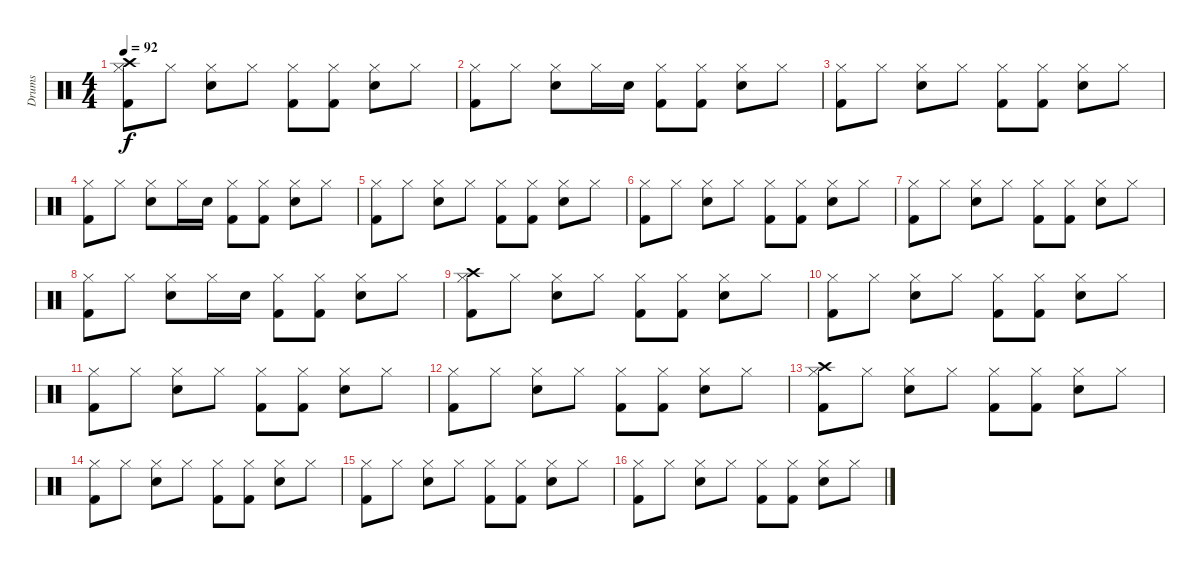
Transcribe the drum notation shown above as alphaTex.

\track ("Drums" "Drums") {instrument percussion}
\staff {score}
\articulation defaults
\ts (4 4)
\tempo 92
\clef neutral
\ks c
("Kick (hit) 2" "Hi-Hat (closed)" "Crash high (hit)").8{dy f} "Hi-Hat (closed)".8 ("Electric Snare (hit)" "Hi-Hat (closed)").8 "Hi-Hat (closed)".8 ("Kick (hit) 2" "Hi-Hat (closed)").8 ("Kick (hit) 2" "Hi-Hat (closed)").8 ("Electric Snare (hit)" "Hi-Hat (closed)").8 "Hi-Hat (closed)".8 |
("Kick (hit) 2" "Hi-Hat (closed)").8 "Hi-Hat (closed)".8 ("Electric Snare (hit)" "Hi-Hat (closed)").8 "Hi-Hat (closed)".16 "Electric Snare (hit)".16 ("Kick (hit) 2" "Hi-Hat (closed)").8 ("Kick (hit) 2" "Hi-Hat (closed)").8 ("Electric Snare (hit)" "Hi-Hat (closed)").8 "Hi-Hat (closed)".8 |
("Kick (hit) 2" "Hi-Hat (closed)").8 "Hi-Hat (closed)".8 ("Electric Snare (hit)" "Hi-Hat (closed)").8 "Hi-Hat (closed)".8 ("Kick (hit) 2" "Hi-Hat (closed)").8 ("Kick (hit) 2" "Hi-Hat (closed)").8 ("Electric Snare (hit)" "Hi-Hat (closed)").8 "Hi-Hat (closed)".8 |
("Kick (hit) 2" "Hi-Hat (closed)").8 "Hi-Hat (closed)".8 ("Electric Snare (hit)" "Hi-Hat (closed)").8 "Hi-Hat (closed)".16 "Electric Snare (hit)".16 ("Kick (hit) 2" "Hi-Hat (closed)").8 ("Kick (hit) 2" "Hi-Hat (closed)").8 ("Electric Snare (hit)" "Hi-Hat (closed)").8 "Hi-Hat (closed)".8 |
("Kick (hit) 2" "Hi-Hat (closed)").8 "Hi-Hat (closed)".8 ("Electric Snare (hit)" "Hi-Hat (closed)").8 "Hi-Hat (closed)".8 ("Kick (hit) 2" "Hi-Hat (closed)").8 ("Kick (hit) 2" "Hi-Hat (closed)").8 ("Electric Snare (hit)" "Hi-Hat (closed)").8 "Hi-Hat (closed)".8 |
("Kick (hit) 2" "Hi-Hat (closed)").8 "Hi-Hat (closed)".8 ("Electric Snare (hit)" "Hi-Hat (closed)").8 "Hi-Hat (closed)".8 ("Kick (hit) 2" "Hi-Hat (closed)").8 ("Kick (hit) 2" "Hi-Hat (closed)").8 ("Electric Snare (hit)" "Hi-Hat (closed)").8 "Hi-Hat (closed)".8 |
("Kick (hit) 2" "Hi-Hat (closed)").8 "Hi-Hat (closed)".8 ("Electric Snare (hit)" "Hi-Hat (closed)").8 "Hi-Hat (closed)".8 ("Kick (hit) 2" "Hi-Hat (closed)").8 ("Kick (hit) 2" "Hi-Hat (closed)").8 ("Electric Snare (hit)" "Hi-Hat (closed)").8 "Hi-Hat (closed)".8 |
("Kick (hit) 2" "Hi-Hat (closed)").8 "Hi-Hat (closed)".8 ("Electric Snare (hit)" "Hi-Hat (closed)").8 "Hi-Hat (closed)".16 "Electric Snare (hit)".16 ("Kick (hit) 2" "Hi-Hat (closed)").8 ("Kick (hit) 2" "Hi-Hat (closed)").8 ("Electric Snare (hit)" "Hi-Hat (closed)").8 "Hi-Hat (closed)".8 |
("Kick (hit) 2" "Hi-Hat (closed)" "Crash high (hit)").8 "Hi-Hat (closed)".8 ("Electric Snare (hit)" "Hi-Hat (closed)").8 "Hi-Hat (closed)".8 ("Kick (hit) 2" "Hi-Hat (closed)").8 ("Kick (hit) 2" "Hi-Hat (closed)").8 ("Electric Snare (hit)" "Hi-Hat (closed)").8 "Hi-Hat (closed)".8 |
("Kick (hit) 2" "Hi-Hat (closed)").8 "Hi-Hat (closed)".8 ("Electric Snare (hit)" "Hi-Hat (closed)").8 "Hi-Hat (closed)".8 ("Kick (hit) 2" "Hi-Hat (closed)").8 ("Kick (hit) 2" "Hi-Hat (closed)").8 ("Electric Snare (hit)" "Hi-Hat (closed)").8 "Hi-Hat (closed)".8 |
("Kick (hit) 2" "Hi-Hat (closed)").8 "Hi-Hat (closed)".8 ("Electric Snare (hit)" "Hi-Hat (closed)").8 "Hi-Hat (closed)".8 ("Kick (hit) 2" "Hi-Hat (closed)").8 ("Kick (hit) 2" "Hi-Hat (closed)").8 ("Electric Snare (hit)" "Hi-Hat (closed)").8 "Hi-Hat (closed)".8 |
("Kick (hit) 2" "Hi-Hat (closed)").8 "Hi-Hat (closed)".8 ("Electric Snare (hit)" "Hi-Hat (closed)").8 "Hi-Hat (closed)".8 ("Kick (hit) 2" "Hi-Hat (closed)").8 ("Kick (hit) 2" "Hi-Hat (closed)").8 ("Electric Snare (hit)" "Hi-Hat (closed)").8 "Hi-Hat (closed)".8 |
("Kick (hit) 2" "Hi-Hat (closed)" "Crash high (hit)").8 "Hi-Hat (closed)".8 ("Electric Snare (hit)" "Hi-Hat (closed)").8 "Hi-Hat (closed)".8 ("Kick (hit) 2" "Hi-Hat (closed)").8 ("Kick (hit) 2" "Hi-Hat (closed)").8 ("Electric Snare (hit)" "Hi-Hat (closed)").8 "Hi-Hat (closed)".8 |
("Kick (hit) 2" "Hi-Hat (closed)").8 "Hi-Hat (closed)".8 ("Electric Snare (hit)" "Hi-Hat (closed)").8 "Hi-Hat (closed)".8 ("Kick (hit) 2" "Hi-Hat (closed)").8 ("Kick (hit) 2" "Hi-Hat (closed)").8 ("Electric Snare (hit)" "Hi-Hat (closed)").8 "Hi-Hat (closed)".8 |
("Kick (hit) 2" "Hi-Hat (closed)").8 "Hi-Hat (closed)".8 ("Electric Snare (hit)" "Hi-Hat (closed)").8 "Hi-Hat (closed)".8 ("Kick (hit) 2" "Hi-Hat (closed)").8 ("Kick (hit) 2" "Hi-Hat (closed)").8 ("Electric Snare (hit)" "Hi-Hat (closed)").8 "Hi-Hat (closed)".8 |
("Kick (hit) 2" "Hi-Hat (closed)").8 "Hi-Hat (closed)".8 ("Electric Snare (hit)" "Hi-Hat (closed)").8 "Hi-Hat (closed)".8 ("Kick (hit) 2" "Hi-Hat (closed)").8 ("Kick (hit) 2" "Hi-Hat (closed)").8 ("Electric Snare (hit)" "Hi-Hat (closed)").8 "Hi-Hat (closed)".8
